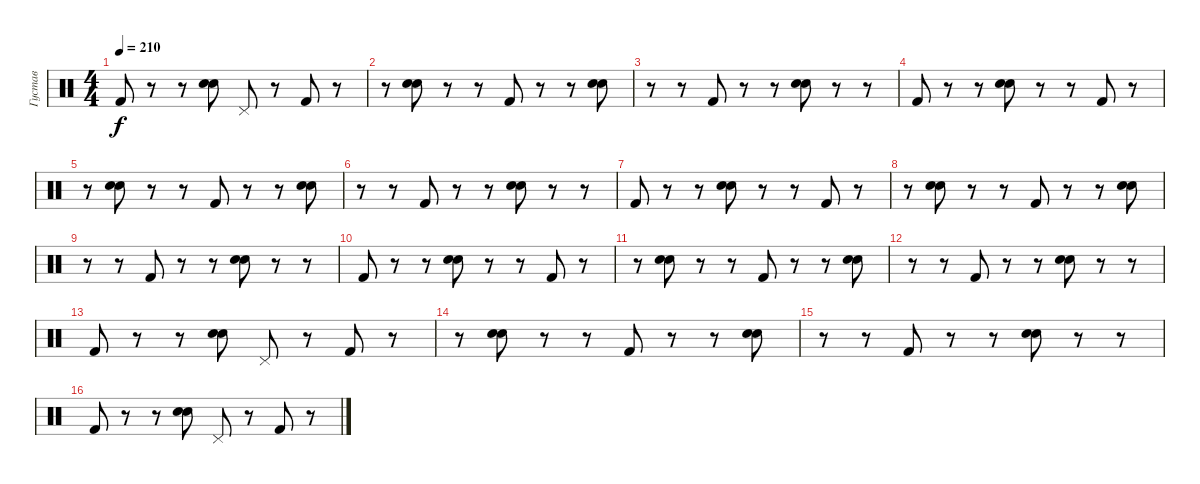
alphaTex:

\track ("Густав" "Густав") {instrument percussion}
\staff {score}
\articulation defaults
\ts (4 4)
\tempo 210
\clef neutral
\ks c "Kick (hit) 2".8{dy f}
r.8 r.8 ("Electric Snare (hit)" "Snare (hit) 2").8 "Pedal Hi-Hat (hit)".8 r.8 "Kick (hit) 2".8 r.8 |
r.8 ("Electric Snare (hit)" "Snare (hit) 2").8 r.8 r.8 "Kick (hit) 2".8 r.8 r.8 ("Electric Snare (hit)" "Snare (hit) 2").8 |
r.8 r.8 "Kick (hit) 2".8 r.8 r.8 ("Electric Snare (hit)" "Snare (hit) 2").8 r.8 r.8 |
"Kick (hit) 2".8 r.8 r.8 ("Electric Snare (hit)" "Snare (hit) 2").8 r.8 r.8 "Kick (hit) 2".8 r.8 |
r.8 ("Electric Snare (hit)" "Snare (hit) 2").8 r.8 r.8 "Kick (hit) 2".8 r.8 r.8 ("Electric Snare (hit)" "Snare (hit) 2").8 |
r.8 r.8 "Kick (hit) 2".8 r.8 r.8 ("Electric Snare (hit)" "Snare (hit) 2").8 r.8 r.8 |
"Kick (hit) 2".8 r.8 r.8 ("Electric Snare (hit)" "Snare (hit) 2").8 r.8 r.8 "Kick (hit) 2".8 r.8 |
r.8 ("Electric Snare (hit)" "Snare (hit) 2").8 r.8 r.8 "Kick (hit) 2".8 r.8 r.8 ("Electric Snare (hit)" "Snare (hit) 2").8 |
r.8 r.8 "Kick (hit) 2".8 r.8 r.8 ("Electric Snare (hit)" "Snare (hit) 2").8 r.8 r.8 |
"Kick (hit) 2".8 r.8 r.8 ("Electric Snare (hit)" "Snare (hit) 2").8 r.8 r.8 "Kick (hit) 2".8 r.8 |
r.8 ("Electric Snare (hit)" "Snare (hit) 2").8 r.8 r.8 "Kick (hit) 2".8 r.8 r.8 ("Electric Snare (hit)" "Snare (hit) 2").8 |
r.8 r.8 "Kick (hit) 2".8 r.8 r.8 ("Electric Snare (hit)" "Snare (hit) 2").8 r.8 r.8 |
"Kick (hit) 2".8 r.8 r.8 ("Electric Snare (hit)" "Snare (hit) 2").8 "Pedal Hi-Hat (hit)".8 r.8 "Kick (hit) 2".8 r.8 |
r.8 ("Electric Snare (hit)" "Snare (hit) 2").8 r.8 r.8 "Kick (hit) 2".8 r.8 r.8 ("Electric Snare (hit)" "Snare (hit) 2").8 |
r.8 r.8 "Kick (hit) 2".8 r.8 r.8 ("Electric Snare (hit)" "Snare (hit) 2").8 r.8 r.8 |
"Kick (hit) 2".8 r.8 r.8 ("Electric Snare (hit)" "Snare (hit) 2").8 "Pedal Hi-Hat (hit)".8 r.8 "Kick (hit) 2".8 r.8
